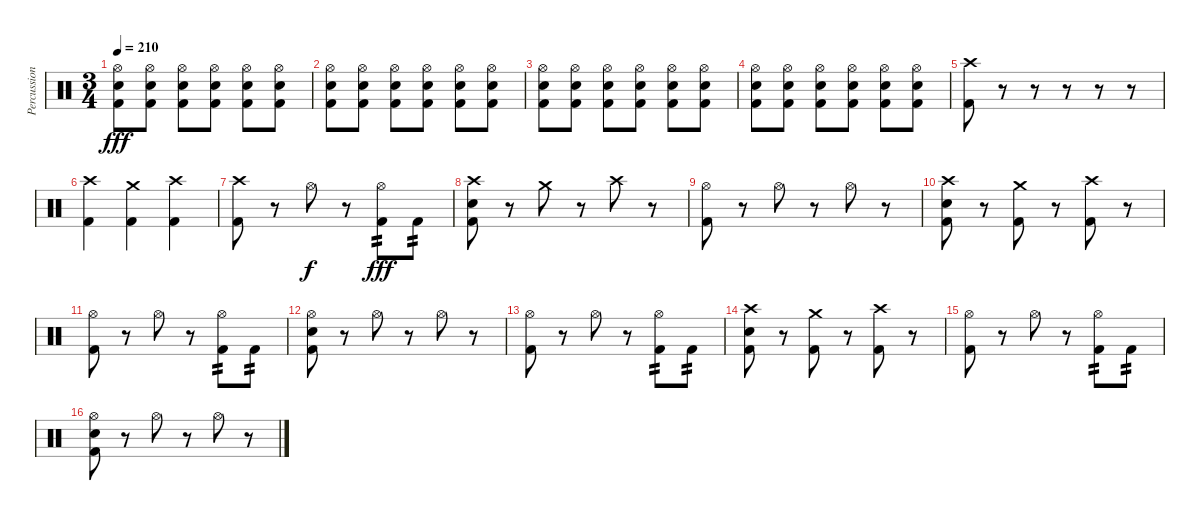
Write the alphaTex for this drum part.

\track ("Percussion" "Percussion") {instrument percussion}
\staff {score}
\articulation defaults
\ts (3 4)
\tempo 210
\clef neutral
\ks c
("Hi-Hat (open)" "Electric Snare (hit)" "Kick (hit) 2").8{dy fff} ("Hi-Hat (open)" "Electric Snare (hit)" "Kick (hit) 2").8 ("Hi-Hat (open)" "Electric Snare (hit)" "Kick (hit) 2").8 ("Hi-Hat (open)" "Electric Snare (hit)" "Kick (hit) 2").8 ("Hi-Hat (open)" "Electric Snare (hit)" "Kick (hit) 2").8 ("Hi-Hat (open)" "Electric Snare (hit)" "Kick (hit) 2").8 |
("Hi-Hat (open)" "Electric Snare (hit)" "Kick (hit) 2").8 ("Hi-Hat (open)" "Electric Snare (hit)" "Kick (hit) 2").8 ("Hi-Hat (open)" "Electric Snare (hit)" "Kick (hit) 2").8 ("Hi-Hat (open)" "Electric Snare (hit)" "Kick (hit) 2").8 ("Hi-Hat (open)" "Electric Snare (hit)" "Kick (hit) 2").8 ("Hi-Hat (open)" "Electric Snare (hit)" "Kick (hit) 2").8 |
("Hi-Hat (open)" "Electric Snare (hit)" "Kick (hit) 2").8 ("Hi-Hat (open)" "Electric Snare (hit)" "Kick (hit) 2").8 ("Hi-Hat (open)" "Electric Snare (hit)" "Kick (hit) 2").8 ("Hi-Hat (open)" "Electric Snare (hit)" "Kick (hit) 2").8 ("Hi-Hat (open)" "Electric Snare (hit)" "Kick (hit) 2").8 ("Hi-Hat (open)" "Electric Snare (hit)" "Kick (hit) 2").8 |
("Hi-Hat (open)" "Electric Snare (hit)" "Kick (hit) 2").8 ("Hi-Hat (open)" "Electric Snare (hit)" "Kick (hit) 2").8 ("Hi-Hat (open)" "Electric Snare (hit)" "Kick (hit) 2").8 ("Hi-Hat (open)" "Electric Snare (hit)" "Kick (hit) 2").8 ("Hi-Hat (open)" "Electric Snare (hit)" "Kick (hit) 2").8 ("Hi-Hat (open)" "Electric Snare (hit)" "Kick (hit) 2").8 |
("Crash high (hit)" "Kick (hit) 2").8{volume 0} r.8 r.8 r.8 r.8 r.8 |
("Crash high (hit)" "Kick (hit) 2").4{volume 16} ("Crash medium (hit)" "Kick (hit) 2").4 ("Crash high (hit)" "Kick (hit) 2").4 |
("Crash high (hit)" "Kick (hit) 2").8 r.8 "Hi-Hat (open)".8{dy f} r.8 ("Hi-Hat (open)" "Kick (hit) 2").8{tp 2 dy fff} "Kick (hit) 2".8{tp 2} |
("Crash high (hit)" "Electric Snare (hit)" "Kick (hit) 2").8 r.8 "Crash medium (hit)".8 r.8 "Crash high (hit)".8 r.8 |
("Hi-Hat (open)" "Kick (hit) 2").8 r.8 "Hi-Hat (open)".8 r.8 "Hi-Hat (open)".8 r.8 |
("Crash high (hit)" "Electric Snare (hit)" "Kick (hit) 2").8 r.8 ("Crash medium (hit)" "Kick (hit) 2").8 r.8 ("Crash high (hit)" "Kick (hit) 2").8 r.8 |
("Hi-Hat (open)" "Kick (hit) 2").8 r.8 "Hi-Hat (open)".8 r.8 ("Hi-Hat (open)" "Kick (hit) 2").8{tp 2} "Kick (hit) 2".8{tp 2} |
("Hi-Hat (open)" "Electric Snare (hit)" "Kick (hit) 2").8 r.8 "Hi-Hat (open)".8 r.8 "Hi-Hat (open)".8 r.8 |
("Hi-Hat (open)" "Kick (hit) 2").8 r.8 "Hi-Hat (open)".8 r.8 ("Hi-Hat (open)" "Kick (hit) 2").8{tp 2} "Kick (hit) 2".8{tp 2} |
("Crash high (hit)" "Electric Snare (hit)" "Kick (hit) 2").8 r.8 ("Crash medium (hit)" "Kick (hit) 2").8 r.8 ("Crash high (hit)" "Kick (hit) 2").8 r.8 |
("Hi-Hat (open)" "Kick (hit) 2").8 r.8 "Hi-Hat (open)".8 r.8 ("Hi-Hat (open)" "Kick (hit) 2").8{tp 2} "Kick (hit) 2".8{tp 2} |
("Hi-Hat (open)" "Electric Snare (hit)" "Kick (hit) 2").8 r.8 "Hi-Hat (open)".8 r.8 "Hi-Hat (open)".8 r.8
